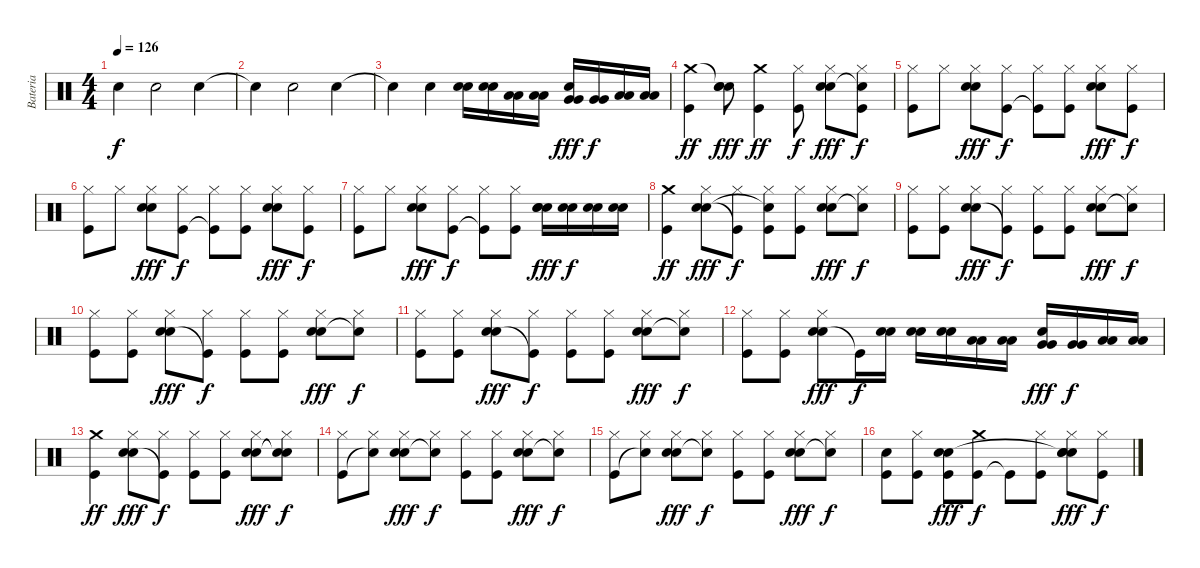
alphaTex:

\track ("Bateria" "Bateria") {instrument percussion}
\staff {score}
\articulation defaults
\ts (4 4)
\tempo 126
\clef neutral
\ks c "Snare (hit)"{t}.4{dy f} "Hand Clap (hit)".2 "Hand Clap (hit)".4
|
"Snare (hit)"{t}.4 "Hand Clap (hit)".2 "Hand Clap (hit)".4 |
"Hand Clap (hit)"{t}.4 "Hand Clap (hit)".4 ("Snare (hit) 2" "Snare (hit) 2").16 ("Snare (hit) 2" "Snare (hit) 2").16 ("Low Tom (hit)" "Low Tom (hit)").16 ("Low Tom (hit)" "Low Tom (hit)").16 ("Very Low Tom (hit)" "Very Low Tom (hit)" "Hand Clap (hit)").16{dy fff} ("Very Low Tom (hit)" "Very Low Tom (hit)").16{dy f} ("Low Floor Tom (hit)" "Low Floor Tom (hit)").16 ("Low Floor Tom (hit)" "Low Floor Tom (hit)").16 |
("Kick (hit)" "Crash medium (hit)").4{dy ff} ("Snare (hit) 2" "Snare (hit)"{t} "Hand Clap (hit)").8{dy fff} ("Kick (hit)" "Crash medium (hit)").4{dy ff} ("Kick (hit)" "Hi-Hat (closed)").8{dy f} ("Snare (hit) 2" "Hi-Hat (closed)" "Hand Clap (hit)").8{dy fff} ("Kick (hit)" "Hi-Hat (closed)" "Snare (hit)"{t}).8{dy f} |
("Kick (hit)" "Hi-Hat (closed)").8 "Hi-Hat (closed)".8 ("Snare (hit) 2" "Hi-Hat (closed)" "Hand Clap (hit)").8{dy fff} ("Kick (hit)" "Hi-Hat (closed)").8{dy f} ("Kick (hit)"{t} "Hi-Hat (closed)").8 ("Kick (hit)" "Hi-Hat (closed)").8 ("Snare (hit) 2" "Hi-Hat (closed)" "Hand Clap (hit)").8{dy fff} ("Kick (hit)" "Hi-Hat (closed)").8{dy f} |
("Kick (hit)" "Hi-Hat (closed)").8 "Hi-Hat (closed)".8 ("Snare (hit) 2" "Hi-Hat (closed)" "Hand Clap (hit)").8{dy fff} ("Kick (hit)" "Hi-Hat (closed)").8{dy f} ("Kick (hit)"{t} "Hi-Hat (closed)").8 ("Kick (hit)" "Hi-Hat (closed)").8 ("Snare (hit) 2" "Hi-Hat (closed)" "Hand Clap (hit)").8{dy fff} ("Kick (hit)" "Hi-Hat (closed)").8{dy f} |
("Kick (hit)" "Hi-Hat (closed)").8 "Hi-Hat (closed)".8 ("Snare (hit) 2" "Hi-Hat (closed)" "Hand Clap (hit)").8{dy fff} ("Kick (hit)" "Hi-Hat (closed)").8{dy f} ("Kick (hit)"{t} "Hi-Hat (closed)").8 ("Kick (hit)" "Hi-Hat (closed)").8 ("Snare (hit) 2" "Snare (hit) 2" "Hand Clap (hit)").16{dy fff} ("Snare (hit) 2" "Snare (hit) 2").16{dy f} ("Snare (hit) 2" "Snare (hit) 2").16 ("Snare (hit) 2" "Snare (hit) 2").16 |
("Kick (hit)" "Crash medium (hit)").4{dy ff} ("Snare (hit) 2" "Hi-Hat (closed)" "Hand Clap (hit)").8{dy fff} ("Kick (hit)"{t} "Hi-Hat (closed)").8{dy f} ("Kick (hit)" "Hi-Hat (closed)" "Snare (hit)"{t}).8 ("Kick (hit)" "Hi-Hat (closed)").8 ("Snare (hit) 2" "Hi-Hat (closed)" "Hand Clap (hit)").8{dy fff} ("Snare (hit)"{t} "Hi-Hat (closed)").8{dy f} |
("Kick (hit)" "Hi-Hat (closed)").8 ("Kick (hit)" "Hi-Hat (closed)").8 ("Snare (hit) 2" "Hi-Hat (closed)" "Hand Clap (hit)").8{dy fff} ("Kick (hit)"{t} "Hi-Hat (closed)").8{dy f} ("Kick (hit)" "Hi-Hat (closed)").8 ("Kick (hit)" "Hi-Hat (closed)").8 ("Snare (hit) 2" "Hi-Hat (closed)" "Hand Clap (hit)").8{dy fff} ("Snare (hit)"{t} "Hi-Hat (closed)").8{dy f} |
("Kick (hit)" "Hi-Hat (closed)").8 ("Kick (hit)" "Hi-Hat (closed)").8 ("Snare (hit) 2" "Hi-Hat (closed)" "Hand Clap (hit)").8{dy fff} ("Kick (hit)"{t} "Hi-Hat (closed)").8{dy f} ("Kick (hit)" "Hi-Hat (closed)").8 ("Kick (hit)" "Hi-Hat (closed)").8 ("Snare (hit) 2" "Hi-Hat (closed)" "Hand Clap (hit)").8{dy fff} ("Snare (hit)"{t} "Hi-Hat (closed)").8{dy f} |
("Kick (hit)" "Hi-Hat (closed)").8 ("Kick (hit)" "Hi-Hat (closed)").8 ("Snare (hit) 2" "Hi-Hat (closed)" "Hand Clap (hit)").8{dy fff} ("Kick (hit)"{t} "Hi-Hat (closed)").8{dy f} ("Kick (hit)" "Hi-Hat (closed)").8 ("Kick (hit)" "Hi-Hat (closed)").8 ("Snare (hit) 2" "Hi-Hat (closed)" "Hand Clap (hit)").8{dy fff} ("Snare (hit)"{t} "Hi-Hat (closed)").8{dy f} |
("Kick (hit)" "Hi-Hat (closed)").8 ("Kick (hit)" "Hi-Hat (closed)").8 ("Snare (hit) 2" "Hi-Hat (closed)" "Hand Clap (hit)").8{dy fff} "Kick (hit)"{t}.16{dy f} ("Snare (hit) 2" "Snare (hit) 2").16 ("Snare (hit) 2" "Snare (hit) 2").16 ("Snare (hit) 2" "Snare (hit) 2").16 ("Low Tom (hit)" "Low Tom (hit)").16 ("Low Tom (hit)" "Low Tom (hit)").16 ("Very Low Tom (hit)" "Very Low Tom (hit)" "Hand Clap (hit)").16{dy fff} ("Very Low Tom (hit)" "Very Low Tom (hit)").16{dy f} ("Low Floor Tom (hit)" "Low Floor Tom (hit)").16 ("Low Floor Tom (hit)" "Low Floor Tom (hit)").16 |
("Kick (hit)" "Crash medium (hit)").4{dy ff} ("Snare (hit) 2" "Hi-Hat (closed)" "Hand Clap (hit)").8{dy fff} ("Kick (hit)"{t} "Hi-Hat (closed)").8{dy f} ("Kick (hit)" "Hi-Hat (closed)").8 ("Kick (hit)" "Hi-Hat (closed)").8 ("Snare (hit) 2" "Hi-Hat (closed)" "Hand Clap (hit)").8{dy fff} ("Snare (hit)"{t} "Hi-Hat (closed)" "Snare (hit)"{t}).8{dy f} |
("Kick (hit)" "Hi-Hat (closed)").8 ("Snare (hit)"{t} "Hi-Hat (closed)").8 ("Snare (hit) 2" "Hi-Hat (closed)" "Hand Clap (hit)").8{dy fff} ("Snare (hit)"{t} "Hi-Hat (closed)").8{dy f} ("Kick (hit)" "Hi-Hat (closed)").8 ("Kick (hit)" "Hi-Hat (closed)").8 ("Snare (hit) 2" "Hi-Hat (closed)" "Hand Clap (hit)").8{dy fff} ("Snare (hit)"{t} "Hi-Hat (closed)").8{dy f} |
("Kick (hit)" "Hi-Hat (closed)").8 ("Snare (hit)"{t} "Hi-Hat (closed)").8 ("Snare (hit) 2" "Hi-Hat (closed)" "Hand Clap (hit)").8{dy fff} ("Snare (hit)"{t} "Hi-Hat (closed)").8{dy f} ("Kick (hit)" "Hi-Hat (closed)").8 ("Kick (hit)" "Hi-Hat (closed)").8 ("Snare (hit) 2" "Hi-Hat (closed)" "Hand Clap (hit)").8{dy fff} ("Snare (hit)"{t} "Hi-Hat (closed)").8{dy f} |
("Kick (hit)" "Snare (hit) 2").8 ("Kick (hit)" "Hi-Hat (closed)").8 ("Kick (hit)" "Snare (hit) 2" "Hand Clap (hit)").8{dy fff} ("Kick (hit)" "Crash medium (hit)").8{dy f} "Kick (hit)"{t}.8 ("Kick (hit)" "Hi-Hat (closed)").8 ("Snare (hit) 2" "Hi-Hat (closed)" "Snare (hit)"{t} "Hand Clap (hit)").8{dy fff} ("Kick (hit)" "Hi-Hat (closed)").8{dy f}
